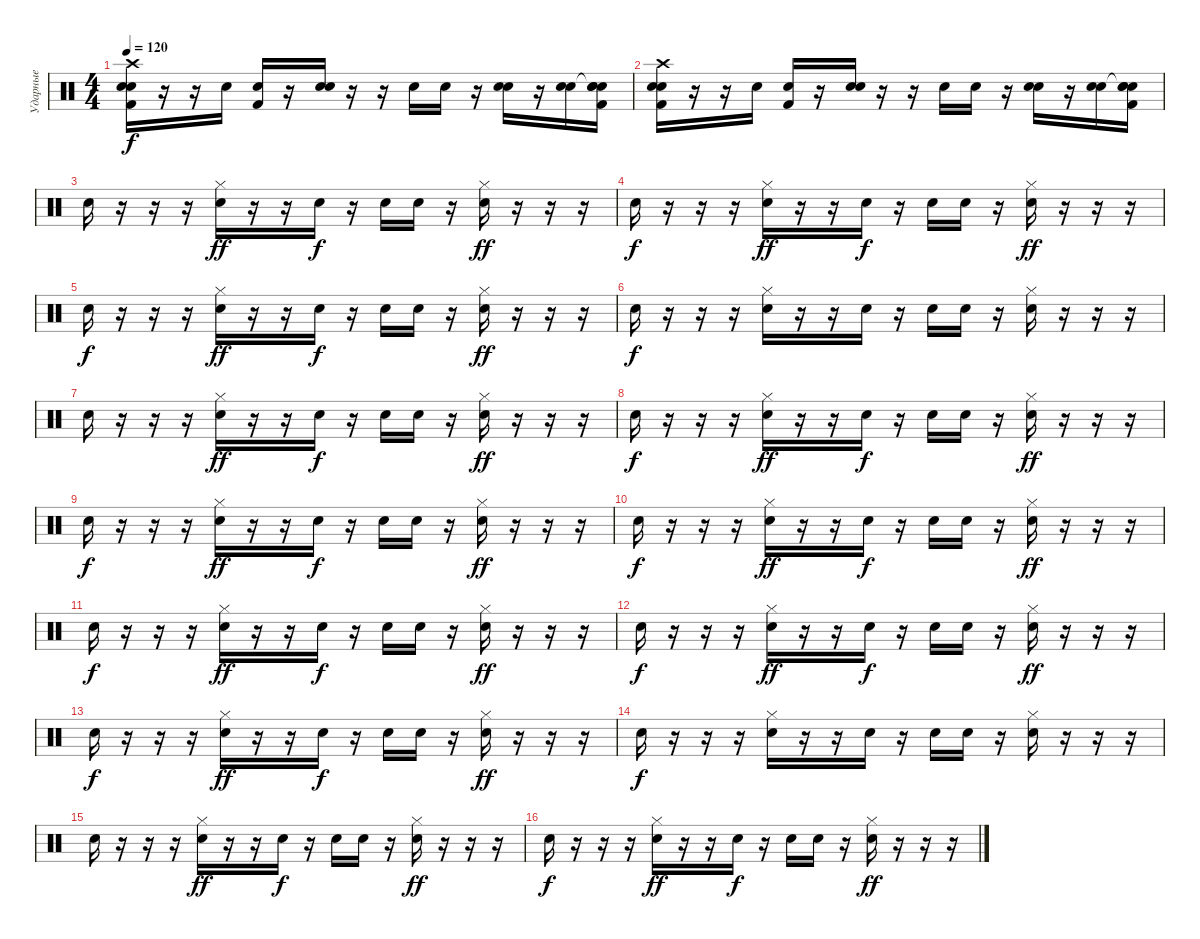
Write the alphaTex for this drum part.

\track ("Ударные" "Ударные") {instrument percussion}
\staff {score}
\articulation defaults
\ts (4 4)
\tempo 120
\clef neutral
\ks c
("Crash high (hit)" "Electric Snare (hit)" "Electric Snare (hit)" "Kick (hit) 2").16{dy f} r.16 r.16 "Electric Snare (hit)".16 ("Electric Snare (hit)" "Kick (hit) 2").16 r.16 ("Electric Snare (hit)" "Electric Snare (hit)").16 r.16 r.16 "Electric Snare (hit)".16 "Electric Snare (hit)".16 r.16 ("Electric Snare (hit)" "Snare (hit) 2").16 r.16 ("Electric Snare (hit)" "Electric Snare (hit)").16 ("Snare (hit)"{t} "Electric Snare (hit)" "Electric Snare (hit)" "Kick (hit) 2").16 |
("Crash high (hit)" "Electric Snare (hit)" "Electric Snare (hit)" "Kick (hit) 2").16 r.16 r.16 "Electric Snare (hit)".16 ("Electric Snare (hit)" "Kick (hit) 2").16 r.16 ("Electric Snare (hit)" "Electric Snare (hit)").16 r.16 r.16 "Electric Snare (hit)".16 "Electric Snare (hit)".16 r.16 ("Electric Snare (hit)" "Snare (hit) 2").16 r.16 ("Electric Snare (hit)" "Electric Snare (hit)").16 ("Snare (hit)"{t} "Electric Snare (hit)" "Electric Snare (hit)" "Kick (hit) 2").16 |
"Electric Snare (hit)".16{volume 9} r.16 r.16 r.16 ("Hi-Hat (closed)" "Snare (hit) 2").16{dy ff} r.16 r.16 "Electric Snare (hit)".16{dy f} r.16 "Electric Snare (hit)".16 "Electric Snare (hit)".16 r.16 ("Hi-Hat (closed)" "Snare (hit) 2").16{dy ff} r.16 r.16 r.16 |
"Electric Snare (hit)".16{dy f} r.16 r.16 r.16 ("Hi-Hat (closed)" "Snare (hit) 2").16{dy ff} r.16 r.16 "Electric Snare (hit)".16{dy f} r.16 "Electric Snare (hit)".16 "Electric Snare (hit)".16 r.16 ("Hi-Hat (closed)" "Snare (hit) 2").16{dy ff} r.16 r.16 r.16 |
"Electric Snare (hit)".16{dy f} r.16 r.16 r.16 ("Hi-Hat (closed)" "Snare (hit) 2").16{dy ff} r.16 r.16 "Electric Snare (hit)".16{dy f} r.16 "Electric Snare (hit)".16 "Electric Snare (hit)".16 r.16 ("Hi-Hat (closed)" "Snare (hit) 2").16{dy ff} r.16 r.16 r.16 |
"Electric Snare (hit)".16{dy f} r.16 r.16 r.16 ("Hi-Hat (closed)" "Snare (hit) 2").16 r.16 r.16 "Electric Snare (hit)".16 r.16 "Electric Snare (hit)".16 "Electric Snare (hit)".16 r.16 ("Hi-Hat (closed)" "Snare (hit) 2").16 r.16 r.16 r.16 |
"Electric Snare (hit)".16{volume 9} r.16 r.16 r.16 ("Hi-Hat (closed)" "Snare (hit) 2").16{dy ff} r.16 r.16 "Electric Snare (hit)".16{dy f} r.16 "Electric Snare (hit)".16 "Electric Snare (hit)".16 r.16 ("Hi-Hat (closed)" "Snare (hit) 2").16{dy ff} r.16 r.16 r.16 |
"Electric Snare (hit)".16{dy f} r.16 r.16 r.16 ("Hi-Hat (closed)" "Snare (hit) 2").16{dy ff} r.16 r.16 "Electric Snare (hit)".16{dy f} r.16 "Electric Snare (hit)".16 "Electric Snare (hit)".16 r.16 ("Hi-Hat (closed)" "Snare (hit) 2").16{dy ff} r.16 r.16 r.16 |
"Electric Snare (hit)".16{dy f} r.16 r.16 r.16 ("Hi-Hat (closed)" "Snare (hit) 2").16{dy ff} r.16 r.16 "Electric Snare (hit)".16{dy f} r.16 "Electric Snare (hit)".16 "Electric Snare (hit)".16 r.16 ("Hi-Hat (closed)" "Snare (hit) 2").16{dy ff} r.16 r.16 r.16 |
"Electric Snare (hit)".16{dy f} r.16 r.16 r.16 ("Hi-Hat (closed)" "Snare (hit) 2").16{dy ff} r.16 r.16 "Electric Snare (hit)".16{dy f} r.16 "Electric Snare (hit)".16 "Electric Snare (hit)".16 r.16 ("Hi-Hat (closed)" "Snare (hit) 2").16{dy ff} r.16 r.16 r.16 |
"Electric Snare (hit)".16{dy f volume 9} r.16 r.16 r.16 ("Hi-Hat (closed)" "Snare (hit) 2").16{dy ff} r.16 r.16 "Electric Snare (hit)".16{dy f} r.16 "Electric Snare (hit)".16 "Electric Snare (hit)".16 r.16 ("Hi-Hat (closed)" "Snare (hit) 2").16{dy ff} r.16 r.16 r.16 |
"Electric Snare (hit)".16{dy f} r.16 r.16 r.16 ("Hi-Hat (closed)" "Snare (hit) 2").16{dy ff} r.16 r.16 "Electric Snare (hit)".16{dy f} r.16 "Electric Snare (hit)".16 "Electric Snare (hit)".16 r.16 ("Hi-Hat (closed)" "Snare (hit) 2").16{dy ff} r.16 r.16 r.16 |
"Electric Snare (hit)".16{dy f} r.16 r.16 r.16 ("Hi-Hat (closed)" "Snare (hit) 2").16{dy ff} r.16 r.16 "Electric Snare (hit)".16{dy f} r.16 "Electric Snare (hit)".16 "Electric Snare (hit)".16 r.16 ("Hi-Hat (closed)" "Snare (hit) 2").16{dy ff} r.16 r.16 r.16 |
"Electric Snare (hit)".16{dy f} r.16 r.16 r.16 ("Hi-Hat (closed)" "Snare (hit) 2").16 r.16 r.16 "Electric Snare (hit)".16 r.16 "Electric Snare (hit)".16 "Electric Snare (hit)".16 r.16 ("Hi-Hat (closed)" "Snare (hit) 2").16 r.16 r.16 r.16 |
"Electric Snare (hit)".16{volume 9} r.16 r.16 r.16 ("Hi-Hat (closed)" "Snare (hit) 2").16{dy ff} r.16 r.16 "Electric Snare (hit)".16{dy f} r.16 "Electric Snare (hit)".16 "Electric Snare (hit)".16 r.16 ("Hi-Hat (closed)" "Snare (hit) 2").16{dy ff} r.16 r.16 r.16 |
"Electric Snare (hit)".16{dy f} r.16 r.16 r.16 ("Hi-Hat (closed)" "Snare (hit) 2").16{dy ff} r.16 r.16 "Electric Snare (hit)".16{dy f} r.16 "Electric Snare (hit)".16 "Electric Snare (hit)".16 r.16 ("Hi-Hat (closed)" "Snare (hit) 2").16{dy ff} r.16 r.16 r.16
